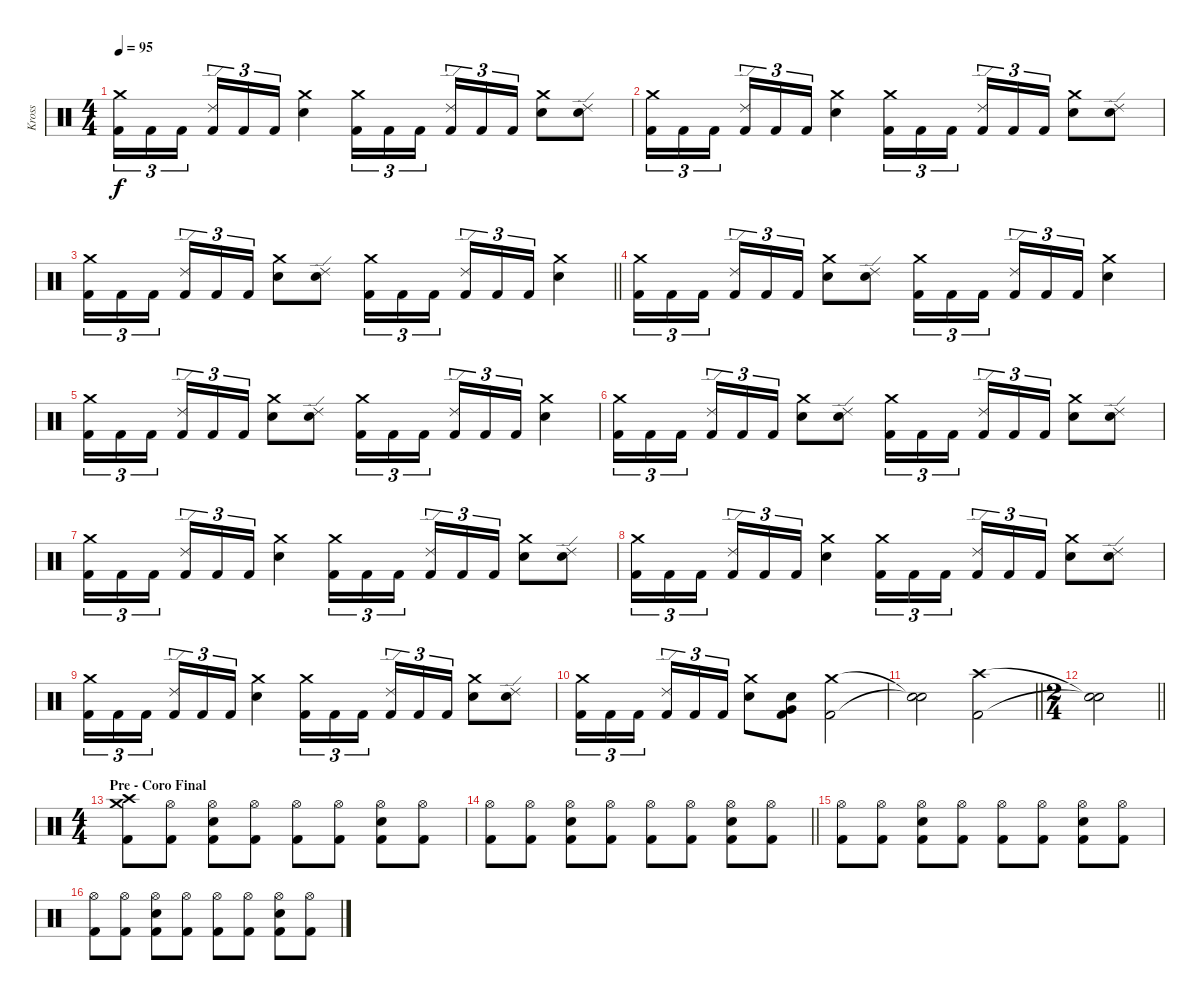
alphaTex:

\track ("Kross" "Kross") {instrument percussion}
\staff {score}
\articulation defaults
\ts (4 4)
\tempo 95
\clef neutral
\ks c
("Crash medium (hit)" "Kick (hit) 2").16{tu (3 2) dy f} "Kick (hit) 2".16{tu (3 2)} "Kick (hit) 2".16{tu (3 2)} ("Ride (edge) 2" "Kick (hit) 2").16{tu (3 2)} "Kick (hit) 2".16{tu (3 2)} "Kick (hit) 2".16{tu (3 2)} ("Crash medium (hit)" "Electric Snare (hit)").4 ("Crash medium (hit)" "Kick (hit) 2").16{tu (3 2)} "Kick (hit) 2".16{tu (3 2)} "Kick (hit) 2".16{tu (3 2)} ("Ride (edge) 2" "Kick (hit) 2").16{tu (3 2)} "Kick (hit) 2".16{tu (3 2)} "Kick (hit) 2".16{tu (3 2)} ("Crash medium (hit)" "Electric Snare (hit)").8 ("Ride (edge) 2" "Electric Snare (hit)").8 |
("Crash medium (hit)" "Kick (hit) 2").16{tu (3 2)} "Kick (hit) 2".16{tu (3 2)} "Kick (hit) 2".16{tu (3 2)} ("Ride (edge) 2" "Kick (hit) 2").16{tu (3 2)} "Kick (hit) 2".16{tu (3 2)} "Kick (hit) 2".16{tu (3 2)} ("Crash medium (hit)" "Electric Snare (hit)").4 ("Crash medium (hit)" "Kick (hit) 2").16{tu (3 2)} "Kick (hit) 2".16{tu (3 2)} "Kick (hit) 2".16{tu (3 2)} ("Ride (edge) 2" "Kick (hit) 2").16{tu (3 2)} "Kick (hit) 2".16{tu (3 2)} "Kick (hit) 2".16{tu (3 2)} ("Crash medium (hit)" "Electric Snare (hit)").8 ("Ride (edge) 2" "Electric Snare (hit)").8 |
\barLineRight lightlight
("Crash medium (hit)" "Kick (hit) 2").16{tu (3 2)} "Kick (hit) 2".16{tu (3 2)} "Kick (hit) 2".16{tu (3 2)} ("Ride (edge) 2" "Kick (hit) 2").16{tu (3 2)} "Kick (hit) 2".16{tu (3 2)} "Kick (hit) 2".16{tu (3 2)} ("Crash medium (hit)" "Electric Snare (hit)").8 ("Ride (edge) 2" "Electric Snare (hit)").8 ("Crash medium (hit)" "Kick (hit) 2").16{tu (3 2)} "Kick (hit) 2".16{tu (3 2)} "Kick (hit) 2".16{tu (3 2)} ("Ride (edge) 2" "Kick (hit) 2").16{tu (3 2)} "Kick (hit) 2".16{tu (3 2)} "Kick (hit) 2".16{tu (3 2)} ("Crash medium (hit)" "Electric Snare (hit)").4 |
("Crash medium (hit)" "Kick (hit) 2").16{tu (3 2)} "Kick (hit) 2".16{tu (3 2)} "Kick (hit) 2".16{tu (3 2)} ("Ride (edge) 2" "Kick (hit) 2").16{tu (3 2)} "Kick (hit) 2".16{tu (3 2)} "Kick (hit) 2".16{tu (3 2)} ("Crash medium (hit)" "Electric Snare (hit)").8 ("Ride (edge) 2" "Electric Snare (hit)").8 ("Crash medium (hit)" "Kick (hit) 2").16{tu (3 2)} "Kick (hit) 2".16{tu (3 2)} "Kick (hit) 2".16{tu (3 2)} ("Ride (edge) 2" "Kick (hit) 2").16{tu (3 2)} "Kick (hit) 2".16{tu (3 2)} "Kick (hit) 2".16{tu (3 2)} ("Crash medium (hit)" "Electric Snare (hit)").4 |
("Crash medium (hit)" "Kick (hit) 2").16{tu (3 2)} "Kick (hit) 2".16{tu (3 2)} "Kick (hit) 2".16{tu (3 2)} ("Ride (edge) 2" "Kick (hit) 2").16{tu (3 2)} "Kick (hit) 2".16{tu (3 2)} "Kick (hit) 2".16{tu (3 2)} ("Crash medium (hit)" "Electric Snare (hit)").8 ("Ride (edge) 2" "Electric Snare (hit)").8 ("Crash medium (hit)" "Kick (hit) 2").16{tu (3 2)} "Kick (hit) 2".16{tu (3 2)} "Kick (hit) 2".16{tu (3 2)} ("Ride (edge) 2" "Kick (hit) 2").16{tu (3 2)} "Kick (hit) 2".16{tu (3 2)} "Kick (hit) 2".16{tu (3 2)} ("Crash medium (hit)" "Electric Snare (hit)").4 |
("Crash medium (hit)" "Kick (hit) 2").16{tu (3 2)} "Kick (hit) 2".16{tu (3 2)} "Kick (hit) 2".16{tu (3 2)} ("Ride (edge) 2" "Kick (hit) 2").16{tu (3 2)} "Kick (hit) 2".16{tu (3 2)} "Kick (hit) 2".16{tu (3 2)} ("Crash medium (hit)" "Electric Snare (hit)").8 ("Ride (edge) 2" "Electric Snare (hit)").8 ("Crash medium (hit)" "Kick (hit) 2").16{tu (3 2)} "Kick (hit) 2".16{tu (3 2)} "Kick (hit) 2".16{tu (3 2)} ("Ride (edge) 2" "Kick (hit) 2").16{tu (3 2)} "Kick (hit) 2".16{tu (3 2)} "Kick (hit) 2".16{tu (3 2)} ("Crash medium (hit)" "Electric Snare (hit)").8 ("Ride (edge) 2" "Electric Snare (hit)").8 |
("Crash medium (hit)" "Kick (hit) 2").16{tu (3 2)} "Kick (hit) 2".16{tu (3 2)} "Kick (hit) 2".16{tu (3 2)} ("Ride (edge) 2" "Kick (hit) 2").16{tu (3 2)} "Kick (hit) 2".16{tu (3 2)} "Kick (hit) 2".16{tu (3 2)} ("Crash medium (hit)" "Electric Snare (hit)").4 ("Crash medium (hit)" "Kick (hit) 2").16{tu (3 2)} "Kick (hit) 2".16{tu (3 2)} "Kick (hit) 2".16{tu (3 2)} ("Ride (edge) 2" "Kick (hit) 2").16{tu (3 2)} "Kick (hit) 2".16{tu (3 2)} "Kick (hit) 2".16{tu (3 2)} ("Crash medium (hit)" "Electric Snare (hit)").8 ("Ride (edge) 2" "Electric Snare (hit)").8 |
("Crash medium (hit)" "Kick (hit) 2").16{tu (3 2)} "Kick (hit) 2".16{tu (3 2)} "Kick (hit) 2".16{tu (3 2)} ("Ride (edge) 2" "Kick (hit) 2").16{tu (3 2)} "Kick (hit) 2".16{tu (3 2)} "Kick (hit) 2".16{tu (3 2)} ("Crash medium (hit)" "Electric Snare (hit)").4 ("Crash medium (hit)" "Kick (hit) 2").16{tu (3 2)} "Kick (hit) 2".16{tu (3 2)} "Kick (hit) 2".16{tu (3 2)} ("Ride (edge) 2" "Kick (hit) 2").16{tu (3 2)} "Kick (hit) 2".16{tu (3 2)} "Kick (hit) 2".16{tu (3 2)} ("Crash medium (hit)" "Electric Snare (hit)").8 ("Ride (edge) 2" "Electric Snare (hit)").8 |
("Crash medium (hit)" "Kick (hit) 2").16{tu (3 2)} "Kick (hit) 2".16{tu (3 2)} "Kick (hit) 2".16{tu (3 2)} ("Ride (edge) 2" "Kick (hit) 2").16{tu (3 2)} "Kick (hit) 2".16{tu (3 2)} "Kick (hit) 2".16{tu (3 2)} ("Crash medium (hit)" "Electric Snare (hit)").4 ("Crash medium (hit)" "Kick (hit) 2").16{tu (3 2)} "Kick (hit) 2".16{tu (3 2)} "Kick (hit) 2".16{tu (3 2)} ("Ride (edge) 2" "Kick (hit) 2").16{tu (3 2)} "Kick (hit) 2".16{tu (3 2)} "Kick (hit) 2".16{tu (3 2)} ("Crash medium (hit)" "Electric Snare (hit)").8 ("Ride (edge) 2" "Electric Snare (hit)").8 |
("Crash medium (hit)" "Kick (hit) 2").16{tu (3 2)} "Kick (hit) 2".16{tu (3 2)} "Kick (hit) 2".16{tu (3 2)} ("Ride (edge) 2" "Kick (hit) 2").16{tu (3 2)} "Kick (hit) 2".16{tu (3 2)} "Kick (hit) 2".16{tu (3 2)} ("Crash medium (hit)" "Electric Snare (hit)").8 ("Very Low Tom (hit)" "Electric Snare (hit)" "Kick (hit) 2").8 ("Crash medium (hit)" "Kick (hit) 2").2 |
\barLineRight lightlight
("Snare (hit)"{t} "Snare (hit)"{t}).2 ("Crash high (hit)" "Kick (hit) 2").2 |
\ts (2 4)
\barLineRight lightlight
("Snare (hit)"{t} "Snare (hit)"{t}).2 |
\ts (4 4)
\section ("" "Pre - Coro Final")
("Crash medium (hit)" "Crash high (hit)" "Kick (hit) 2").8 ("Hi-Hat (open)" "Kick (hit) 2").8 ("Hi-Hat (open)" "Electric Snare (hit)" "Kick (hit) 2").8 ("Hi-Hat (open)" "Kick (hit) 2").8 ("Hi-Hat (open)" "Kick (hit) 2").8 ("Hi-Hat (open)" "Kick (hit) 2").8 ("Hi-Hat (open)" "Electric Snare (hit)" "Kick (hit) 2").8 ("Hi-Hat (open)" "Kick (hit) 2").8 |
\barLineRight lightlight
("Hi-Hat (open)" "Kick (hit) 2").8 ("Hi-Hat (open)" "Kick (hit) 2").8 ("Hi-Hat (open)" "Electric Snare (hit)" "Kick (hit) 2").8 ("Hi-Hat (open)" "Kick (hit) 2").8 ("Hi-Hat (open)" "Kick (hit) 2").8 ("Hi-Hat (open)" "Kick (hit) 2").8 ("Hi-Hat (open)" "Electric Snare (hit)" "Kick (hit) 2").8 ("Hi-Hat (open)" "Kick (hit) 2").8 |
("Hi-Hat (open)" "Kick (hit) 2").8 ("Hi-Hat (open)" "Kick (hit) 2").8 ("Hi-Hat (open)" "Electric Snare (hit)" "Kick (hit) 2").8 ("Hi-Hat (open)" "Kick (hit) 2").8 ("Hi-Hat (open)" "Kick (hit) 2").8 ("Hi-Hat (open)" "Kick (hit) 2").8 ("Hi-Hat (open)" "Electric Snare (hit)" "Kick (hit) 2").8 ("Hi-Hat (open)" "Kick (hit) 2").8 |
("Hi-Hat (open)" "Kick (hit) 2").8 ("Hi-Hat (open)" "Kick (hit) 2").8 ("Hi-Hat (open)" "Electric Snare (hit)" "Kick (hit) 2").8 ("Hi-Hat (open)" "Kick (hit) 2").8 ("Hi-Hat (open)" "Kick (hit) 2").8 ("Hi-Hat (open)" "Kick (hit) 2").8 ("Hi-Hat (open)" "Electric Snare (hit)" "Kick (hit) 2").8 ("Hi-Hat (open)" "Kick (hit) 2").8
